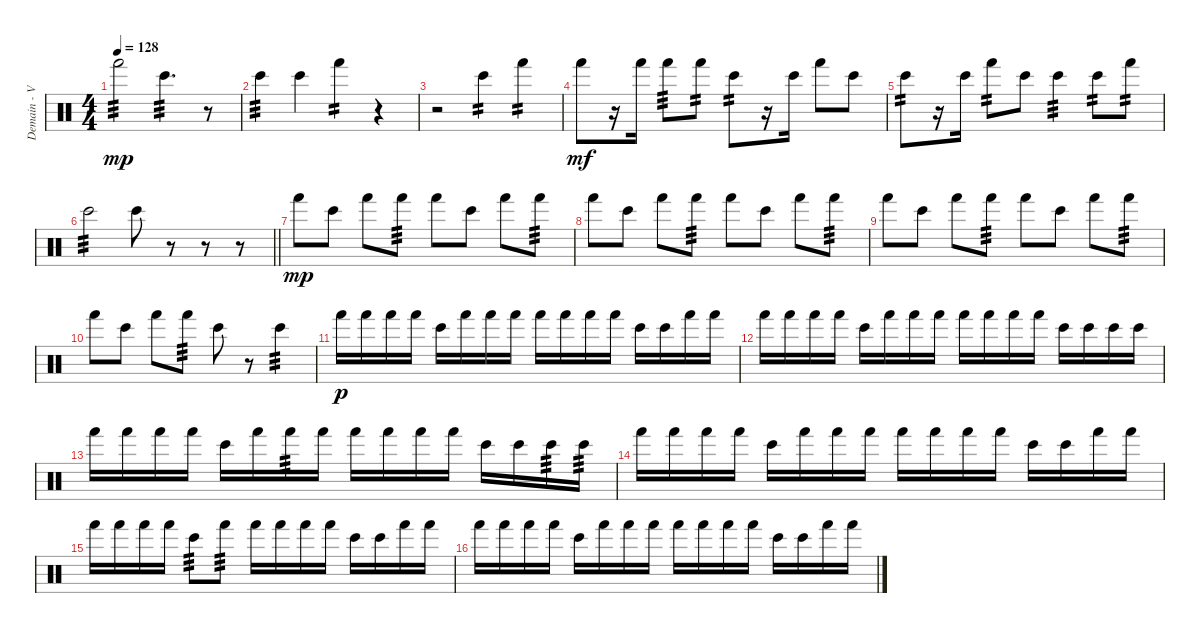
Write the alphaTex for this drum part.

\track ("Demain - Various Perc." "Demain - V") {instrument percussion}
\staff {score}
\articulation defaults
\ts (4 4)
\tempo 128
\clef neutral
\ks c "Hand (hit)".2{tp 3 dy mp} "Bongo High (hit)".4{d tp 3}
r.8 |
"Bongo High (hit)".4{tp 3} "Bongo High (hit)".4 "Hand (hit)".4{tp 2} r.4 |
r.2 "Bongo High (hit)".4{tp 2} "Hand (hit)".4{tp 2} |
"Hand (hit)".8{dy mf} r.16 "Hand (hit)".16 "Hand (hit)".8{tp 3} "Hand (hit)".8{tp 2} "Bongo High (hit)".8{tp 2} r.16 "Bongo High (hit)".16 "Hand (hit)".8 "Bongo High (hit)".8 |
"Bongo High (hit)".8{tp 2} r.16 "Bongo High (hit)".16 "Hand (hit)".8{tp 2} "Bongo High (hit)".8 "Bongo High (hit)".4{tp 3} "Bongo High (hit)".8{tp 2} "Hand (hit)".8{tp 2} |
\barLineRight lightlight "Bongo High (hit)".2{tp 3} "Bongo High (hit)".8
r.8 r.8 r.8 |
"Hand (hit)".8{dy mp} "Bongo High (hit)".8 "Hand (hit)".8 "Hand (hit)".8{tp 3} "Hand (hit)".8 "Bongo High (hit)".8 "Hand (hit)".8 "Hand (hit)".8{tp 3} |
"Hand (hit)".8 "Bongo High (hit)".8 "Hand (hit)".8 "Hand (hit)".8{tp 3} "Hand (hit)".8 "Bongo High (hit)".8 "Hand (hit)".8 "Hand (hit)".8{tp 3} |
"Hand (hit)".8 "Bongo High (hit)".8 "Hand (hit)".8 "Hand (hit)".8{tp 3} "Hand (hit)".8 "Bongo High (hit)".8 "Hand (hit)".8 "Hand (hit)".8{tp 3} |
"Hand (hit)".8 "Bongo High (hit)".8 "Hand (hit)".8 "Hand (hit)".8{tp 3} "Bongo High (hit)".8 r.8 "Bongo High (hit)".4{tp 3} |
"Hand (hit)".16{dy p} "Hand (hit)".16 "Hand (hit)".16 "Hand (hit)".16 "Bongo High (hit)".16 "Hand (hit)".16 "Hand (hit)".16 "Hand (hit)".16 "Hand (hit)".16 "Hand (hit)".16 "Hand (hit)".16 "Hand (hit)".16 "Bongo High (hit)".16 "Bongo High (hit)".16 "Hand (hit)".16 "Hand (hit)".16 |
"Hand (hit)".16 "Hand (hit)".16 "Hand (hit)".16 "Hand (hit)".16 "Bongo High (hit)".16 "Hand (hit)".16 "Hand (hit)".16 "Hand (hit)".16 "Hand (hit)".16 "Hand (hit)".16 "Hand (hit)".16 "Hand (hit)".16 "Bongo High (hit)".16 "Bongo High (hit)".16 "Bongo High (hit)".16 "Bongo High (hit)".16 |
"Hand (hit)".16 "Hand (hit)".16 "Hand (hit)".16 "Hand (hit)".16 "Bongo High (hit)".16 "Hand (hit)".16 "Hand (hit)".16{tp 3} "Hand (hit)".16 "Hand (hit)".16 "Hand (hit)".16 "Hand (hit)".16 "Hand (hit)".16 "Bongo High (hit)".16 "Bongo High (hit)".16 "Bongo High (hit)".16{tp 3} "Bongo High (hit)".16{tp 3} |
"Hand (hit)".16 "Hand (hit)".16 "Hand (hit)".16 "Hand (hit)".16 "Bongo High (hit)".16 "Hand (hit)".16 "Hand (hit)".16 "Hand (hit)".16 "Hand (hit)".16 "Hand (hit)".16 "Hand (hit)".16 "Hand (hit)".16 "Bongo High (hit)".16 "Bongo High (hit)".16 "Hand (hit)".16 "Hand (hit)".16 |
"Hand (hit)".16 "Hand (hit)".16 "Hand (hit)".16 "Hand (hit)".16 "Bongo High (hit)".8{tp 3} "Hand (hit)".8{tp 3} "Hand (hit)".16 "Hand (hit)".16 "Hand (hit)".16 "Hand (hit)".16 "Bongo High (hit)".16 "Bongo High (hit)".16 "Hand (hit)".16 "Hand (hit)".16 |
"Hand (hit)".16 "Hand (hit)".16 "Hand (hit)".16 "Hand (hit)".16 "Bongo High (hit)".16 "Hand (hit)".16 "Hand (hit)".16 "Hand (hit)".16 "Hand (hit)".16 "Hand (hit)".16 "Hand (hit)".16 "Hand (hit)".16 "Bongo High (hit)".16 "Bongo High (hit)".16 "Hand (hit)".16 "Hand (hit)".16
